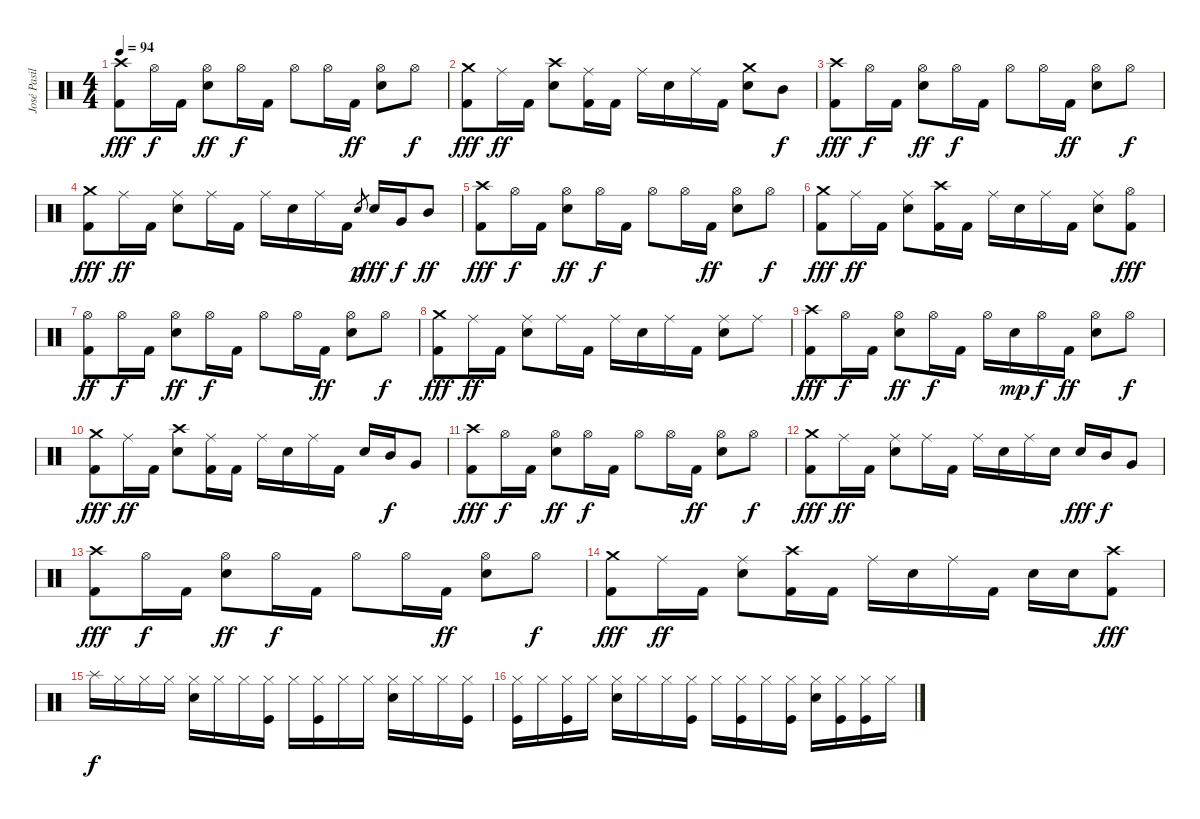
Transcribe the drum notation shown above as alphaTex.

\track ("José Pasillas II : Drums" "José Pasil") {instrument percussion}
\staff {score}
\articulation defaults
\ts (4 4)
\tempo 94
\clef neutral
\ks c
("Crash high (hit)" "Kick (hit) 2").8{dy fff} "Hi-Hat (open)".16{dy f} "Kick (hit) 2".16 ("Hi-Hat (open)" "Electric Snare (hit)").8{dy ff} "Hi-Hat (open)".16{dy f} "Kick (hit) 2".16 "Hi-Hat (open)".8 "Hi-Hat (open)".16 "Kick (hit) 2".16{dy ff} ("Hi-Hat (open)" "Electric Snare (hit)").8 "Hi-Hat (open)".8{dy f} |
("Crash medium (hit)" "Kick (hit) 2").8{dy fff} "Ride (middle)".16{dy ff} "Kick (hit) 2".16 ("Crash high (hit)" "Electric Snare (hit)").8 ("Ride (middle)" "Kick (hit) 2").16 "Kick (hit) 2".16 "Ride (middle)".16 "Electric Snare (hit)".16 "Ride (middle)".16 "Kick (hit) 2".16 ("Crash medium (hit)" "Electric Snare (hit)").8 "Mid Tom (hit)".8{dy f} |
("Crash high (hit)" "Kick (hit) 2").8{dy fff} "Hi-Hat (open)".16{dy f} "Kick (hit) 2".16 ("Hi-Hat (open)" "Electric Snare (hit)").8{dy ff} "Hi-Hat (open)".16{dy f} "Kick (hit) 2".16 "Hi-Hat (open)".8 "Hi-Hat (open)".16 "Kick (hit) 2".16{dy ff} ("Hi-Hat (open)" "Electric Snare (hit)").8 "Hi-Hat (open)".8{dy f} |
("Crash medium (hit)" "Kick (hit) 2").8{dy fff} "Ride (middle)".16{dy ff} "Kick (hit) 2".16 ("Ride (middle)" "Electric Snare (hit)").8 "Ride (middle)".16 "Kick (hit) 2".16 "Ride (middle)".16 "Electric Snare (hit)".16 "Ride (middle)".16 "Kick (hit) 2".16 "Electric Snare (hit)".8{gr dy p} "Electric Snare (hit)".16{dy fff} "Very Low Tom (hit)".16{dy f} "Mid Tom (hit)".8{dy ff} |
("Crash high (hit)" "Kick (hit) 2").8{dy fff} "Hi-Hat (open)".16{dy f} "Kick (hit) 2".16 ("Hi-Hat (open)" "Electric Snare (hit)").8{dy ff} "Hi-Hat (open)".16{dy f} "Kick (hit) 2".16 "Hi-Hat (open)".8 "Hi-Hat (open)".16 "Kick (hit) 2".16{dy ff} ("Hi-Hat (open)" "Electric Snare (hit)").8 "Hi-Hat (open)".8{dy f} |
("Crash medium (hit)" "Kick (hit) 2").8{dy fff} "Ride (middle)".16{dy ff} "Kick (hit) 2".16 ("Ride (middle)" "Electric Snare (hit)").8 ("Crash high (hit)" "Kick (hit) 2").16 "Kick (hit) 2".16 "Ride (middle)".16 "Electric Snare (hit)".16 "Ride (middle)".16 "Kick (hit) 2".16 ("Ride (middle)" "Electric Snare (hit)").8 ("Hi-Hat (open)" "Kick (hit) 2").8{dy fff} |
("Hi-Hat (open)" "Kick (hit) 2").8{dy ff} "Hi-Hat (open)".16{dy f} "Kick (hit) 2".16 ("Hi-Hat (open)" "Electric Snare (hit)").8{dy ff} "Hi-Hat (open)".16{dy f} "Kick (hit) 2".16 "Hi-Hat (open)".8 "Hi-Hat (open)".16 "Kick (hit) 2".16{dy ff} ("Hi-Hat (open)" "Electric Snare (hit)").8 "Hi-Hat (open)".8{dy f} |
("Crash medium (hit)" "Kick (hit) 2").8{dy fff} "Ride (middle)".16{dy ff} "Kick (hit) 2".16 ("Ride (middle)" "Electric Snare (hit)").8 "Ride (middle)".16 "Kick (hit) 2".16 "Ride (middle)".16 "Electric Snare (hit)".16 "Ride (middle)".16 "Kick (hit) 2".16 ("Ride (middle)" "Electric Snare (hit)").8 "Ride (middle)".8 |
("Crash high (hit)" "Kick (hit) 2").8{dy fff} "Hi-Hat (open)".16{dy f} "Kick (hit) 2".16 ("Hi-Hat (open)" "Electric Snare (hit)").8{dy ff} "Hi-Hat (open)".16{dy f} "Kick (hit) 2".16 "Hi-Hat (open)".16 "Electric Snare (hit)".16{dy mp} "Hi-Hat (open)".16{dy f} "Kick (hit) 2".16{dy ff} ("Hi-Hat (open)" "Electric Snare (hit)").8 "Hi-Hat (open)".8{dy f} |
("Crash medium (hit)" "Kick (hit) 2").8{dy fff} "Ride (middle)".16{dy ff} "Kick (hit) 2".16 ("Crash high (hit)" "Electric Snare (hit)").8 ("Ride (middle)" "Kick (hit) 2").16 "Kick (hit) 2".16 "Ride (middle)".16 "Electric Snare (hit)".16 "Ride (middle)".16 "Kick (hit) 2".16 "Electric Snare (hit)".16 "Mid Tom (hit)".16{dy f} "Very Low Tom (hit)".8 |
("Crash high (hit)" "Kick (hit) 2").8{dy fff} "Hi-Hat (open)".16{dy f} "Kick (hit) 2".16 ("Hi-Hat (open)" "Electric Snare (hit)").8{dy ff} "Hi-Hat (open)".16{dy f} "Kick (hit) 2".16 "Hi-Hat (open)".8 "Hi-Hat (open)".16 "Kick (hit) 2".16{dy ff} ("Hi-Hat (open)" "Electric Snare (hit)").8 "Hi-Hat (open)".8{dy f} |
("Crash medium (hit)" "Kick (hit) 2").8{dy fff} "Ride (middle)".16{dy ff} "Kick (hit) 2".16 ("Ride (middle)" "Electric Snare (hit)").8 "Ride (middle)".16 "Kick (hit) 2".16 "Ride (middle)".16 "Electric Snare (hit)".16 "Ride (middle)".16 "Electric Snare (hit)".16 "Electric Snare (hit)".16{dy fff} "Mid Tom (hit)".16{dy f} "Very Low Tom (hit)".8 |
("Crash high (hit)" "Kick (hit) 2").8{dy fff} "Hi-Hat (open)".16{dy f} "Kick (hit) 2".16 ("Hi-Hat (open)" "Electric Snare (hit)").8{dy ff} "Hi-Hat (open)".16{dy f} "Kick (hit) 2".16 "Hi-Hat (open)".8 "Hi-Hat (open)".16 "Kick (hit) 2".16{dy ff} ("Hi-Hat (open)" "Electric Snare (hit)").8 "Hi-Hat (open)".8{dy f} |
("Crash medium (hit)" "Kick (hit) 2").8{dy fff} "Ride (middle)".16{dy ff} "Kick (hit) 2".16 ("Ride (middle)" "Electric Snare (hit)").8 ("Crash high (hit)" "Kick (hit) 2").16 "Kick (hit) 2".16 "Ride (middle)".16 "Electric Snare (hit)".16 "Ride (middle)".16 "Kick (hit) 2".16 "Electric Snare (hit)".16 "Electric Snare (hit)".16 ("Crash high (hit)" "Kick (hit) 2").8{dy fff} |
"Splash (hit)".16{dy f} "Hi-Hat (closed)".16 "Hi-Hat (closed)".16 "Hi-Hat (closed)".16 ("Hi-Hat (closed)" "Snare (hit) 2").16 "Hi-Hat (closed)".16 "Hi-Hat (closed)".16 ("Hi-Hat (closed)" "Kick (hit)").16 "Hi-Hat (closed)".16 ("Hi-Hat (closed)" "Kick (hit)").16 "Hi-Hat (closed)".16 "Hi-Hat (closed)".16 ("Hi-Hat (closed)" "Snare (hit) 2").16 "Hi-Hat (closed)".16 "Hi-Hat (closed)".16 ("Hi-Hat (closed)" "Kick (hit)").16 |
("Hi-Hat (closed)" "Kick (hit)").16 "Hi-Hat (closed)".16 ("Hi-Hat (closed)" "Kick (hit)").16 "Hi-Hat (closed)".16 ("Hi-Hat (closed)" "Snare (hit) 2").16 "Hi-Hat (closed)".16 "Hi-Hat (closed)".16 ("Hi-Hat (closed)" "Kick (hit)").16 "Hi-Hat (closed)".16 ("Hi-Hat (closed)" "Kick (hit)").16 "Hi-Hat (closed)".16 ("Hi-Hat (closed)" "Kick (hit)").16 ("Hi-Hat (closed)" "Snare (hit) 2").16 ("Hi-Hat (closed)" "Kick (hit)").16 ("Hi-Hat (closed)" "Kick (hit)").16 "Hi-Hat (closed)".16
